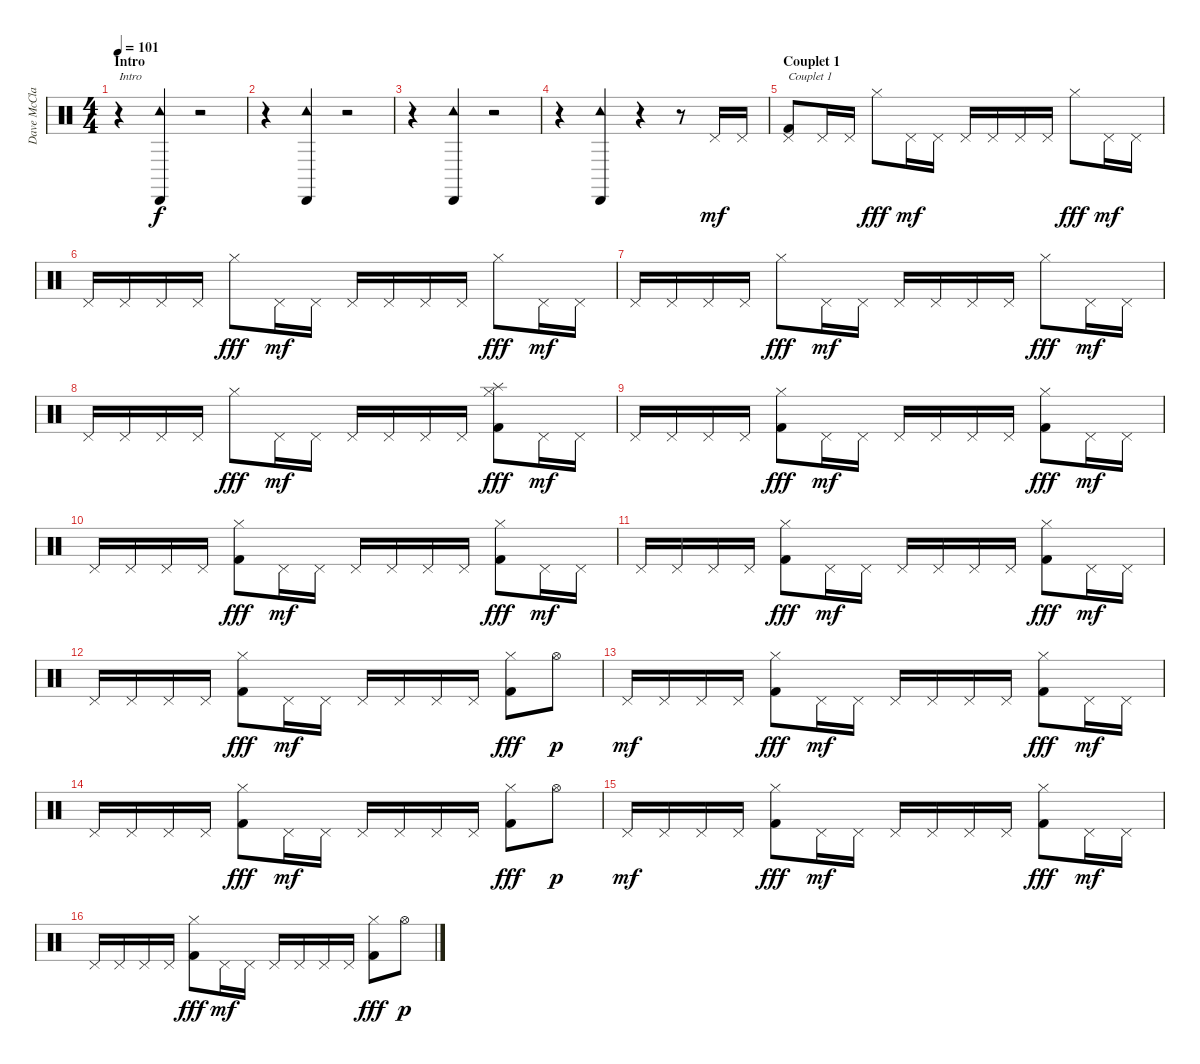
\track ("Dave McClain" "Dave McCla") {instrument percussion}
\staff {score}
\articulation defaults
\ts (4 4)
\section ("" "Intro")
\tempo 101
\tempo 93
\tempo 101
\clef neutral
\ks c
r.4{txt "Intro" dy f} ("Cabasa (hit)" "Tambourine (hit)").4 r.2 |
r.4 ("Cabasa (hit)" "Tambourine (hit)").4 r.2 |
r.4 ("Cabasa (hit)" "Tambourine (hit)").4 r.2 |
r.4 ("Cabasa (hit)" "Tambourine (hit)").4 r.4 r.8 "Pedal Hi-Hat (hit)".16{dy mf} "Pedal Hi-Hat (hit)".16 |
\section ("" "Couplet 1")
("Pedal Hi-Hat (hit)" "Kick (hit) 2").8{txt "Couplet 1"} "Pedal Hi-Hat (hit)".16 "Pedal Hi-Hat (hit)".16 "Hi-Hat (closed)".8{dy fff} "Pedal Hi-Hat (hit)".16{dy mf} "Pedal Hi-Hat (hit)".16 "Pedal Hi-Hat (hit)".16 "Pedal Hi-Hat (hit)".16 "Pedal Hi-Hat (hit)".16 "Pedal Hi-Hat (hit)".16 "Hi-Hat (closed)".8{dy fff} "Pedal Hi-Hat (hit)".16{dy mf} "Pedal Hi-Hat (hit)".16 |
"Pedal Hi-Hat (hit)".16 "Pedal Hi-Hat (hit)".16 "Pedal Hi-Hat (hit)".16 "Pedal Hi-Hat (hit)".16 "Hi-Hat (closed)".8{dy fff} "Pedal Hi-Hat (hit)".16{dy mf} "Pedal Hi-Hat (hit)".16 "Pedal Hi-Hat (hit)".16 "Pedal Hi-Hat (hit)".16 "Pedal Hi-Hat (hit)".16 "Pedal Hi-Hat (hit)".16 "Hi-Hat (closed)".8{dy fff} "Pedal Hi-Hat (hit)".16{dy mf} "Pedal Hi-Hat (hit)".16 |
"Pedal Hi-Hat (hit)".16 "Pedal Hi-Hat (hit)".16 "Pedal Hi-Hat (hit)".16 "Pedal Hi-Hat (hit)".16 "Hi-Hat (closed)".8{dy fff} "Pedal Hi-Hat (hit)".16{dy mf} "Pedal Hi-Hat (hit)".16 "Pedal Hi-Hat (hit)".16 "Pedal Hi-Hat (hit)".16 "Pedal Hi-Hat (hit)".16 "Pedal Hi-Hat (hit)".16 "Hi-Hat (closed)".8{dy fff} "Pedal Hi-Hat (hit)".16{dy mf} "Pedal Hi-Hat (hit)".16 |
"Pedal Hi-Hat (hit)".16 "Pedal Hi-Hat (hit)".16 "Pedal Hi-Hat (hit)".16 "Pedal Hi-Hat (hit)".16 "Hi-Hat (closed)".8{dy fff} "Pedal Hi-Hat (hit)".16{dy mf} "Pedal Hi-Hat (hit)".16 "Pedal Hi-Hat (hit)".16 "Pedal Hi-Hat (hit)".16 "Pedal Hi-Hat (hit)".16 "Pedal Hi-Hat (hit)".16 ("Splash (hit)" "Hi-Hat (closed)" "Kick (hit) 2").8{dy fff} "Pedal Hi-Hat (hit)".16{dy mf} "Pedal Hi-Hat (hit)".16 |
"Pedal Hi-Hat (hit)".16 "Pedal Hi-Hat (hit)".16 "Pedal Hi-Hat (hit)".16 "Pedal Hi-Hat (hit)".16 ("Hi-Hat (closed)" "Kick (hit) 2").8{dy fff} "Pedal Hi-Hat (hit)".16{dy mf} "Pedal Hi-Hat (hit)".16 "Pedal Hi-Hat (hit)".16 "Pedal Hi-Hat (hit)".16 "Pedal Hi-Hat (hit)".16 "Pedal Hi-Hat (hit)".16 ("Hi-Hat (closed)" "Kick (hit) 2").8{dy fff} "Pedal Hi-Hat (hit)".16{dy mf} "Pedal Hi-Hat (hit)".16 |
"Pedal Hi-Hat (hit)".16 "Pedal Hi-Hat (hit)".16 "Pedal Hi-Hat (hit)".16 "Pedal Hi-Hat (hit)".16 ("Hi-Hat (closed)" "Kick (hit) 2").8{dy fff} "Pedal Hi-Hat (hit)".16{dy mf} "Pedal Hi-Hat (hit)".16 "Pedal Hi-Hat (hit)".16 "Pedal Hi-Hat (hit)".16 "Pedal Hi-Hat (hit)".16 "Pedal Hi-Hat (hit)".16 ("Hi-Hat (closed)" "Kick (hit) 2").8{dy fff} "Pedal Hi-Hat (hit)".16{dy mf} "Pedal Hi-Hat (hit)".16 |
"Pedal Hi-Hat (hit)".16 "Pedal Hi-Hat (hit)".16 "Pedal Hi-Hat (hit)".16 "Pedal Hi-Hat (hit)".16 ("Hi-Hat (closed)" "Kick (hit) 2").8{dy fff} "Pedal Hi-Hat (hit)".16{dy mf} "Pedal Hi-Hat (hit)".16 "Pedal Hi-Hat (hit)".16 "Pedal Hi-Hat (hit)".16 "Pedal Hi-Hat (hit)".16 "Pedal Hi-Hat (hit)".16 ("Hi-Hat (closed)" "Kick (hit) 2").8{dy fff} "Pedal Hi-Hat (hit)".16{dy mf} "Pedal Hi-Hat (hit)".16 |
"Pedal Hi-Hat (hit)".16 "Pedal Hi-Hat (hit)".16 "Pedal Hi-Hat (hit)".16 "Pedal Hi-Hat (hit)".16 ("Hi-Hat (closed)" "Kick (hit) 2").8{dy fff} "Pedal Hi-Hat (hit)".16{dy mf} "Pedal Hi-Hat (hit)".16 "Pedal Hi-Hat (hit)".16 "Pedal Hi-Hat (hit)".16 "Pedal Hi-Hat (hit)".16 "Pedal Hi-Hat (hit)".16 ("Hi-Hat (closed)" "Kick (hit) 2").8{dy fff} "Hi-Hat (open)".8{dy p} |
"Pedal Hi-Hat (hit)".16{dy mf} "Pedal Hi-Hat (hit)".16 "Pedal Hi-Hat (hit)".16 "Pedal Hi-Hat (hit)".16 ("Hi-Hat (closed)" "Kick (hit) 2").8{dy fff} "Pedal Hi-Hat (hit)".16{dy mf} "Pedal Hi-Hat (hit)".16 "Pedal Hi-Hat (hit)".16 "Pedal Hi-Hat (hit)".16 "Pedal Hi-Hat (hit)".16 "Pedal Hi-Hat (hit)".16 ("Hi-Hat (closed)" "Kick (hit) 2").8{dy fff} "Pedal Hi-Hat (hit)".16{dy mf} "Pedal Hi-Hat (hit)".16 |
"Pedal Hi-Hat (hit)".16 "Pedal Hi-Hat (hit)".16 "Pedal Hi-Hat (hit)".16 "Pedal Hi-Hat (hit)".16 ("Hi-Hat (closed)" "Kick (hit) 2").8{dy fff} "Pedal Hi-Hat (hit)".16{dy mf} "Pedal Hi-Hat (hit)".16 "Pedal Hi-Hat (hit)".16 "Pedal Hi-Hat (hit)".16 "Pedal Hi-Hat (hit)".16 "Pedal Hi-Hat (hit)".16 ("Hi-Hat (closed)" "Kick (hit) 2").8{dy fff} "Hi-Hat (open)".8{dy p} |
"Pedal Hi-Hat (hit)".16{dy mf} "Pedal Hi-Hat (hit)".16 "Pedal Hi-Hat (hit)".16 "Pedal Hi-Hat (hit)".16 ("Hi-Hat (closed)" "Kick (hit) 2").8{dy fff} "Pedal Hi-Hat (hit)".16{dy mf} "Pedal Hi-Hat (hit)".16 "Pedal Hi-Hat (hit)".16 "Pedal Hi-Hat (hit)".16 "Pedal Hi-Hat (hit)".16 "Pedal Hi-Hat (hit)".16 ("Hi-Hat (closed)" "Kick (hit) 2").8{dy fff} "Pedal Hi-Hat (hit)".16{dy mf} "Pedal Hi-Hat (hit)".16 |
"Pedal Hi-Hat (hit)".16 "Pedal Hi-Hat (hit)".16 "Pedal Hi-Hat (hit)".16 "Pedal Hi-Hat (hit)".16 ("Hi-Hat (closed)" "Kick (hit) 2").8{dy fff} "Pedal Hi-Hat (hit)".16{dy mf} "Pedal Hi-Hat (hit)".16 "Pedal Hi-Hat (hit)".16 "Pedal Hi-Hat (hit)".16 "Pedal Hi-Hat (hit)".16 "Pedal Hi-Hat (hit)".16 ("Hi-Hat (closed)" "Kick (hit) 2").8{dy fff} "Hi-Hat (open)".8{dy p}
